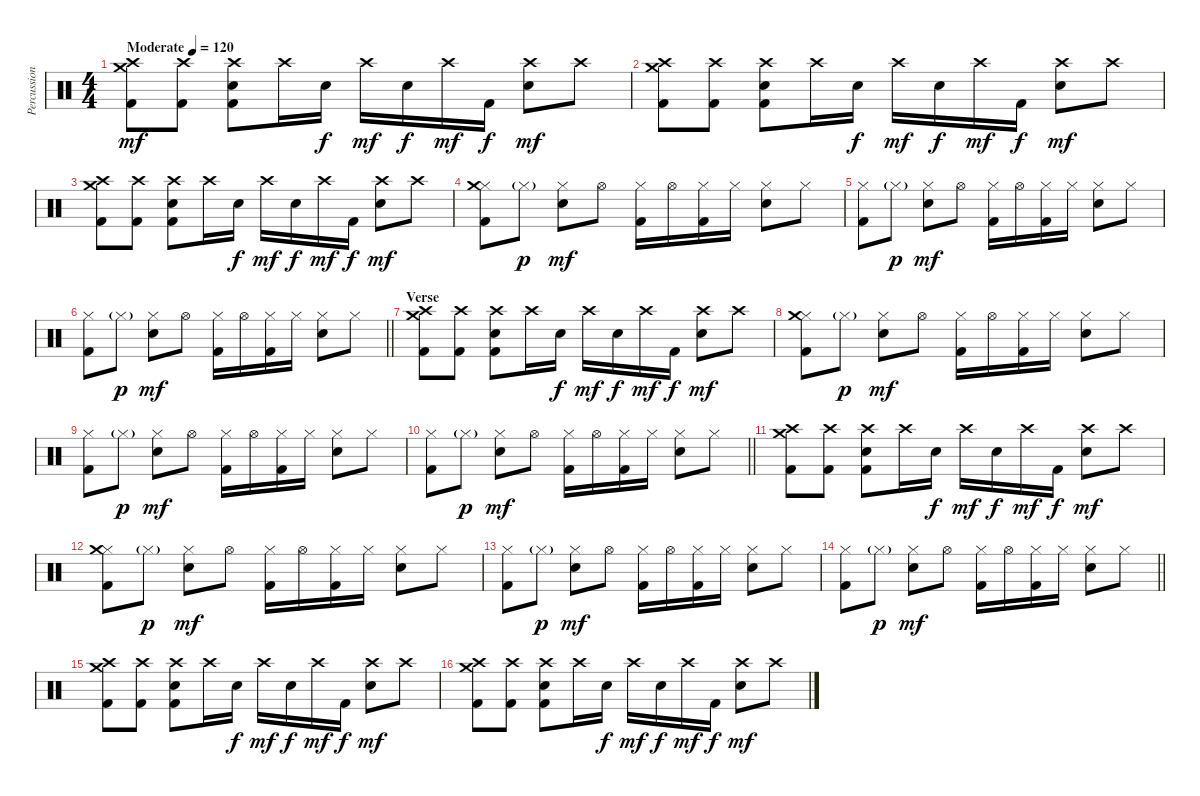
\track ("Percussion" "Percussion") {instrument percussion}
\staff {score}
\articulation defaults
\ts (4 4)
\tempo (120 "Moderate")
\clef neutral
\ks c
("Crash high (hit)" "Kick (hit) 2" "Crash medium (hit)").8{dy mf} ("Crash high (hit)" "Kick (hit) 2").8 ("Crash high (hit)" "Kick (hit) 2" "Electric Snare (hit)").8 "Crash high (hit)".16 "Electric Snare (hit)".16{dy f} "Crash high (hit)".16{dy mf} "Electric Snare (hit)".16{dy f} "Crash high (hit)".16{dy mf} "Kick (hit) 2".16{dy f} ("Crash high (hit)" "Electric Snare (hit)").8{dy mf} "Crash high (hit)".8 |
("Crash high (hit)" "Kick (hit) 2" "Crash medium (hit)").8 ("Crash high (hit)" "Kick (hit) 2").8 ("Crash high (hit)" "Kick (hit) 2" "Electric Snare (hit)").8 "Crash high (hit)".16 "Electric Snare (hit)".16{dy f} "Crash high (hit)".16{dy mf} "Electric Snare (hit)".16{dy f} "Crash high (hit)".16{dy mf} "Kick (hit) 2".16{dy f} ("Crash high (hit)" "Electric Snare (hit)").8{dy mf} "Crash high (hit)".8 |
("Crash high (hit)" "Kick (hit) 2" "Crash medium (hit)").8 ("Crash high (hit)" "Kick (hit) 2").8 ("Crash high (hit)" "Kick (hit) 2" "Electric Snare (hit)").8 "Crash high (hit)".16 "Electric Snare (hit)".16{dy f} "Crash high (hit)".16{dy mf} "Electric Snare (hit)".16{dy f} "Crash high (hit)".16{dy mf} "Kick (hit) 2".16{dy f} ("Crash high (hit)" "Electric Snare (hit)").8{dy mf} "Crash high (hit)".8 |
("Hi-Hat (closed)" "Kick (hit) 2" "Crash medium (hit)").8 "Hi-Hat (closed)"{g}.8{dy p} ("Hi-Hat (closed)" "Electric Snare (hit)").8{dy mf} "Hi-Hat (open)".8 ("Hi-Hat (closed)" "Kick (hit) 2").16 "Hi-Hat (open)".16 ("Hi-Hat (closed)" "Kick (hit) 2").16 "Hi-Hat (closed)".16 ("Hi-Hat (closed)" "Electric Snare (hit)").8 "Hi-Hat (closed)".8 |
("Hi-Hat (closed)" "Kick (hit) 2").8 "Hi-Hat (closed)"{g}.8{dy p} ("Hi-Hat (closed)" "Electric Snare (hit)").8{dy mf} "Hi-Hat (open)".8 ("Hi-Hat (closed)" "Kick (hit) 2").16 "Hi-Hat (open)".16 ("Hi-Hat (closed)" "Kick (hit) 2").16 "Hi-Hat (closed)".16 ("Hi-Hat (closed)" "Electric Snare (hit)").8 "Hi-Hat (closed)".8 |
\barLineRight lightlight
("Hi-Hat (closed)" "Kick (hit) 2").8 "Hi-Hat (closed)"{g}.8{dy p} ("Hi-Hat (closed)" "Electric Snare (hit)").8{dy mf} "Hi-Hat (open)".8 ("Hi-Hat (closed)" "Kick (hit) 2").16 "Hi-Hat (open)".16 ("Hi-Hat (closed)" "Kick (hit) 2").16 "Hi-Hat (closed)".16 ("Hi-Hat (closed)" "Electric Snare (hit)").8 "Hi-Hat (closed)".8 |
\section ("" "Verse")
("Crash high (hit)" "Kick (hit) 2" "Crash medium (hit)").8 ("Crash high (hit)" "Kick (hit) 2").8 ("Crash high (hit)" "Kick (hit) 2" "Electric Snare (hit)").8 "Crash high (hit)".16 "Electric Snare (hit)".16{dy f} "Crash high (hit)".16{dy mf} "Electric Snare (hit)".16{dy f} "Crash high (hit)".16{dy mf} "Kick (hit) 2".16{dy f} ("Crash high (hit)" "Electric Snare (hit)").8{dy mf} "Crash high (hit)".8 |
("Hi-Hat (closed)" "Kick (hit) 2" "Crash medium (hit)").8 "Hi-Hat (closed)"{g}.8{dy p} ("Hi-Hat (closed)" "Electric Snare (hit)").8{dy mf} "Hi-Hat (open)".8 ("Hi-Hat (closed)" "Kick (hit) 2").16 "Hi-Hat (open)".16 ("Hi-Hat (closed)" "Kick (hit) 2").16 "Hi-Hat (closed)".16 ("Hi-Hat (closed)" "Electric Snare (hit)").8 "Hi-Hat (closed)".8 |
("Hi-Hat (closed)" "Kick (hit) 2").8 "Hi-Hat (closed)"{g}.8{dy p} ("Hi-Hat (closed)" "Electric Snare (hit)").8{dy mf} "Hi-Hat (open)".8 ("Hi-Hat (closed)" "Kick (hit) 2").16 "Hi-Hat (open)".16 ("Hi-Hat (closed)" "Kick (hit) 2").16 "Hi-Hat (closed)".16 ("Hi-Hat (closed)" "Electric Snare (hit)").8 "Hi-Hat (closed)".8 |
\barLineRight lightlight
("Hi-Hat (closed)" "Kick (hit) 2").8 "Hi-Hat (closed)"{g}.8{dy p} ("Hi-Hat (closed)" "Electric Snare (hit)").8{dy mf} "Hi-Hat (open)".8 ("Hi-Hat (closed)" "Kick (hit) 2").16 "Hi-Hat (open)".16 ("Hi-Hat (closed)" "Kick (hit) 2").16 "Hi-Hat (closed)".16 ("Hi-Hat (closed)" "Electric Snare (hit)").8 "Hi-Hat (closed)".8 |
("Crash high (hit)" "Kick (hit) 2" "Crash medium (hit)").8 ("Crash high (hit)" "Kick (hit) 2").8 ("Crash high (hit)" "Kick (hit) 2" "Electric Snare (hit)").8 "Crash high (hit)".16 "Electric Snare (hit)".16{dy f} "Crash high (hit)".16{dy mf} "Electric Snare (hit)".16{dy f} "Crash high (hit)".16{dy mf} "Kick (hit) 2".16{dy f} ("Crash high (hit)" "Electric Snare (hit)").8{dy mf} "Crash high (hit)".8 |
("Hi-Hat (closed)" "Kick (hit) 2" "Crash medium (hit)").8 "Hi-Hat (closed)"{g}.8{dy p} ("Hi-Hat (closed)" "Electric Snare (hit)").8{dy mf} "Hi-Hat (open)".8 ("Hi-Hat (closed)" "Kick (hit) 2").16 "Hi-Hat (open)".16 ("Hi-Hat (closed)" "Kick (hit) 2").16 "Hi-Hat (closed)".16 ("Hi-Hat (closed)" "Electric Snare (hit)").8 "Hi-Hat (closed)".8 |
("Hi-Hat (closed)" "Kick (hit) 2").8 "Hi-Hat (closed)"{g}.8{dy p} ("Hi-Hat (closed)" "Electric Snare (hit)").8{dy mf} "Hi-Hat (open)".8 ("Hi-Hat (closed)" "Kick (hit) 2").16 "Hi-Hat (open)".16 ("Hi-Hat (closed)" "Kick (hit) 2").16 "Hi-Hat (closed)".16 ("Hi-Hat (closed)" "Electric Snare (hit)").8 "Hi-Hat (closed)".8 |
\barLineRight lightlight
("Hi-Hat (closed)" "Kick (hit) 2").8 "Hi-Hat (closed)"{g}.8{dy p} ("Hi-Hat (closed)" "Electric Snare (hit)").8{dy mf} "Hi-Hat (open)".8 ("Hi-Hat (closed)" "Kick (hit) 2").16 "Hi-Hat (open)".16 ("Hi-Hat (closed)" "Kick (hit) 2").16 "Hi-Hat (closed)".16 ("Hi-Hat (closed)" "Electric Snare (hit)").8 "Hi-Hat (closed)".8 |
("Crash high (hit)" "Kick (hit) 2" "Crash medium (hit)").8 ("Crash high (hit)" "Kick (hit) 2").8 ("Crash high (hit)" "Kick (hit) 2" "Electric Snare (hit)").8 "Crash high (hit)".16 "Electric Snare (hit)".16{dy f} "Crash high (hit)".16{dy mf} "Electric Snare (hit)".16{dy f} "Crash high (hit)".16{dy mf} "Kick (hit) 2".16{dy f} ("Crash high (hit)" "Electric Snare (hit)").8{dy mf} "Crash high (hit)".8 |
("Crash high (hit)" "Kick (hit) 2" "Crash medium (hit)").8 ("Crash high (hit)" "Kick (hit) 2").8 ("Crash high (hit)" "Kick (hit) 2" "Electric Snare (hit)").8 "Crash high (hit)".16 "Electric Snare (hit)".16{dy f} "Crash high (hit)".16{dy mf} "Electric Snare (hit)".16{dy f} "Crash high (hit)".16{dy mf} "Kick (hit) 2".16{dy f} ("Crash high (hit)" "Electric Snare (hit)").8{dy mf} "Crash high (hit)".8
